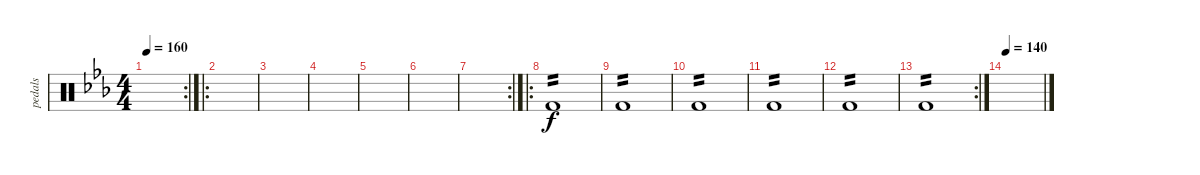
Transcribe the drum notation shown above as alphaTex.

\track ("pedals" "pedals") {instrument percussion}
\staff {score}
\articulation defaults
\rc 2
\ts (4 4)
\tempo 160
\clef neutral
\ks cminor
|
\ro
|
|
|
|
|
\rc 2
|
\ro "Kick (hit) 2".1{tp 2}
|
"Kick (hit) 2".1{tp 2 dy f} |
"Kick (hit) 2".1{tp 2} |
"Kick (hit) 2".1{tp 2} |
"Kick (hit) 2".1{tp 2} |
\rc 2 "Kick (hit) 2".1{tp 2}
|
\tempo 140
